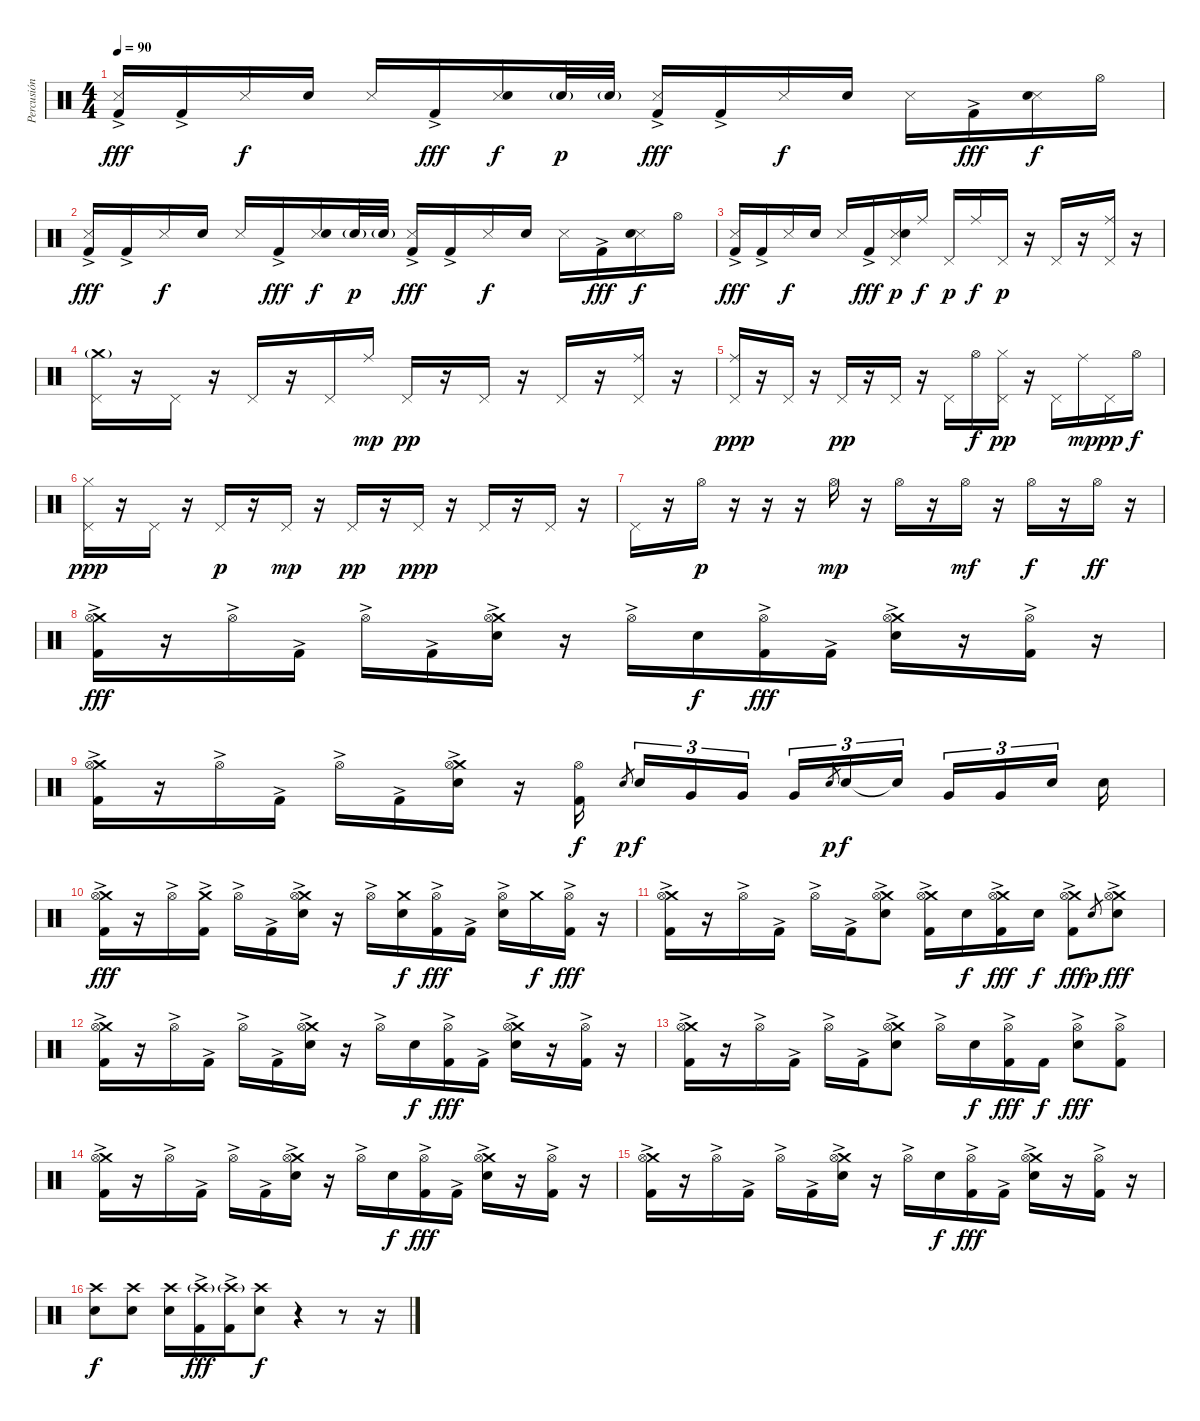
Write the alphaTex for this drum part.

\track ("Percusión" "Percusión") {instrument percussion}
\staff {score}
\articulation defaults
\ts (4 4)
\tempo 90
\clef neutral
\ks c
("Snare (side stick) 3" "Kick (hit) 2"{ac}).16{dy fff} "Kick (hit) 2"{ac}.16 "Snare (side stick) 3".16{dy f} "Electric Snare (hit)".16 "Snare (side stick) 3".16 "Kick (hit) 2"{ac}.16{dy fff} ("Snare (side stick) 3" "Electric Snare (hit)").16{dy f} "Electric Snare (hit)"{g}.32{dy p} "Electric Snare (hit)"{g}.32 ("Snare (side stick) 3" "Kick (hit) 2"{ac}).16{dy fff} "Kick (hit) 2"{ac}.16 "Snare (side stick) 3".16{dy f} "Electric Snare (hit)".16 "Snare (side stick) 3".16 "Kick (hit) 2"{ac}.16{dy fff} ("Snare (side stick) 3" "Electric Snare (hit)").16{dy f} "Hi-Hat (open)".16 |
("Snare (side stick) 3" "Kick (hit) 2"{ac}).16{dy fff} "Kick (hit) 2"{ac}.16 "Snare (side stick) 3".16{dy f} "Electric Snare (hit)".16 "Snare (side stick) 3".16 "Kick (hit) 2"{ac}.16{dy fff} ("Snare (side stick) 3" "Electric Snare (hit)").16{dy f} "Electric Snare (hit)"{g}.32{dy p} "Electric Snare (hit)"{g}.32 ("Snare (side stick) 3" "Kick (hit) 2"{ac}).16{dy fff} "Kick (hit) 2"{ac}.16 "Snare (side stick) 3".16{dy f} "Electric Snare (hit)".16 "Snare (side stick) 3".16 "Kick (hit) 2"{ac}.16{dy fff} ("Snare (side stick) 3" "Electric Snare (hit)").16{dy f} "Hi-Hat (open)".16 |
("Snare (side stick) 3" "Kick (hit) 2"{ac}).16{dy fff} "Kick (hit) 2"{ac}.16 "Snare (side stick) 3".16{dy f} "Electric Snare (hit)".16 "Snare (side stick) 3".16 "Kick (hit) 2"{ac}.16{dy fff} ("Snare (side stick) 3" "Pedal Hi-Hat (hit)" "Electric Snare (hit)").16{dy p} "Ride (middle)".16{dy f} "Pedal Hi-Hat (hit)".16{dy p} "Ride (middle)".16{dy f} "Pedal Hi-Hat (hit)".16{dy p} r.16 "Pedal Hi-Hat (hit)".16 r.16 ("Ride (middle)" "Pedal Hi-Hat (hit)").16 r.16 |
("Crash medium (hit)"{g} "Pedal Hi-Hat (hit)").16 r.16 "Pedal Hi-Hat (hit)".16 r.16 "Pedal Hi-Hat (hit)".16 r.16 "Pedal Hi-Hat (hit)".16 "Ride (middle)".16{dy mp} "Pedal Hi-Hat (hit)".16{dy pp} r.16 "Pedal Hi-Hat (hit)".16 r.16 "Pedal Hi-Hat (hit)".16 r.16 ("Ride (middle)" "Pedal Hi-Hat (hit)").16 r.16 |
("Ride (middle)" "Pedal Hi-Hat (hit)").16{dy ppp} r.16 "Pedal Hi-Hat (hit)".16 r.16 "Pedal Hi-Hat (hit)".16{dy pp} r.16 "Pedal Hi-Hat (hit)".16 r.16 "Pedal Hi-Hat (hit)".16 "Hi-Hat (open)".16{dy f} ("Hi-Hat (closed)" "Pedal Hi-Hat (hit)").16{dy pp} r.16 "Pedal Hi-Hat (hit)".16 "Ride (middle)".16{dy mp} "Pedal Hi-Hat (hit)".16{dy pp} "Hi-Hat (open)".16{dy f} |
("Hi-Hat (closed)" "Pedal Hi-Hat (hit)").16{dy ppp} r.16 "Pedal Hi-Hat (hit)".16 r.16 "Pedal Hi-Hat (hit)".16{dy p} r.16 "Pedal Hi-Hat (hit)".16{dy mp} r.16 "Pedal Hi-Hat (hit)".16{dy pp} r.16 "Pedal Hi-Hat (hit)".16{dy ppp} r.16 "Pedal Hi-Hat (hit)".16 r.16 "Pedal Hi-Hat (hit)".16 r.16 |
"Pedal Hi-Hat (hit)".16 r.16 "Hi-Hat (open)".16{dy p} r.16 r.16 r.16 "Hi-Hat (open)".16{dy mp} r.16 "Hi-Hat (open)".16 r.16 "Hi-Hat (open)".16{dy mf} r.16 "Hi-Hat (open)".16{dy f} r.16 "Hi-Hat (open)".16{dy ff} r.16 |
("Crash medium (hit)" "Hi-Hat (open)"{ac} "Kick (hit) 2"{ac}).16{dy fff} r.16 "Hi-Hat (open)"{ac}.16 "Kick (hit) 2"{ac}.16 "Hi-Hat (open)"{ac}.16 "Kick (hit) 2"{ac}.16 ("Crash medium (hit)" "Hi-Hat (open)"{ac} "Electric Snare (hit)").16 r.16 "Hi-Hat (open)"{ac}.16 "Electric Snare (hit)".16{dy f} ("Hi-Hat (open)"{ac} "Kick (hit) 2"{ac}).16{dy fff} "Kick (hit) 2"{ac}.16 ("Crash medium (hit)" "Hi-Hat (open)"{ac} "Electric Snare (hit)").16 r.16 ("Hi-Hat (open)"{ac} "Kick (hit) 2").16 r.16 |
("Crash medium (hit)" "Hi-Hat (open)"{ac} "Kick (hit) 2"{ac}).16 r.16 "Hi-Hat (open)"{ac}.16 "Kick (hit) 2"{ac}.16 "Hi-Hat (open)"{ac}.16 "Kick (hit) 2"{ac}.16 ("Crash medium (hit)" "Hi-Hat (open)"{ac} "Electric Snare (hit)").16 r.16 ("Hi-Hat (open)" "Kick (hit) 2").16{dy f} "Electric Snare (hit)".8{gr dy p} "Electric Snare (hit)".16{tu (3 2) dy f} "Very Low Tom (hit)".16{tu (3 2)} "Very Low Tom (hit)".16{tu (3 2)} "Very Low Tom (hit)".16{tu (3 2)} "Electric Snare (hit)".8{gr dy p} "Electric Snare (hit)".16{tu (3 2) dy f} "Electric Snare (hit)"{t}.16{tu (3 2)} "Very Low Tom (hit)".16{tu (3 2)} "Very Low Tom (hit)".16{tu (3 2)} "Electric Snare (hit)".16{tu (3 2)} "Electric Snare (hit)".16 |
("Crash medium (hit)" "Hi-Hat (open)" "Kick (hit) 2"{ac}).16{dy fff} r.16 "Hi-Hat (open)"{ac}.16 ("Crash medium (hit)" "Kick (hit) 2"{ac}).16 "Hi-Hat (open)"{ac}.16 "Kick (hit) 2"{ac}.16 ("Crash medium (hit)" "Hi-Hat (open)"{ac} "Electric Snare (hit)").16 r.16 "Hi-Hat (open)"{ac}.16 ("Crash medium (hit)" "Electric Snare (hit)").16{dy f} ("Hi-Hat (open)"{ac} "Kick (hit) 2"{ac}).16{dy fff} "Kick (hit) 2"{ac}.16 ("Hi-Hat (open)"{ac} "Electric Snare (hit)").16 "Crash medium (hit)".16{dy f} ("Hi-Hat (open)"{ac} "Kick (hit) 2").16{dy fff} r.16 |
("Crash medium (hit)" "Hi-Hat (open)" "Kick (hit) 2"{ac}).16 r.16 "Hi-Hat (open)"{ac}.16 "Kick (hit) 2"{ac}.16 "Hi-Hat (open)"{ac}.16 "Kick (hit) 2"{ac}.16 ("Crash medium (hit)" "Hi-Hat (open)"{ac} "Electric Snare (hit)").8 ("Crash medium (hit)" "Hi-Hat (open)"{ac} "Kick (hit) 2"{ac}).16 "Electric Snare (hit)".16{dy f} ("Crash medium (hit)" "Hi-Hat (open)"{ac} "Kick (hit) 2"{ac}).16{dy fff} "Electric Snare (hit)".16{dy f} ("Crash medium (hit)" "Hi-Hat (open)"{ac} "Kick (hit) 2"{ac}).8{dy fff} "Electric Snare (hit)".8{gr dy p} ("Crash medium (hit)" "Hi-Hat (open)"{ac} "Electric Snare (hit)").8{dy fff} |
("Crash medium (hit)" "Hi-Hat (open)" "Kick (hit) 2"{ac}).16 r.16 "Hi-Hat (open)"{ac}.16 "Kick (hit) 2"{ac}.16 "Hi-Hat (open)"{ac}.16 "Kick (hit) 2"{ac}.16 ("Crash medium (hit)" "Hi-Hat (open)"{ac} "Electric Snare (hit)").16 r.16 "Hi-Hat (open)"{ac}.16 "Electric Snare (hit)".16{dy f} ("Hi-Hat (open)"{ac} "Kick (hit) 2"{ac}).16{dy fff} "Kick (hit) 2"{ac}.16 ("Crash medium (hit)" "Hi-Hat (open)"{ac} "Electric Snare (hit)").16 r.16 ("Hi-Hat (open)"{ac} "Kick (hit) 2").16 r.16 |
("Crash medium (hit)" "Hi-Hat (open)" "Kick (hit) 2"{ac}).16 r.16 "Hi-Hat (open)"{ac}.16 "Kick (hit) 2"{ac}.16 "Hi-Hat (open)"{ac}.16 "Kick (hit) 2"{ac}.16 ("Crash medium (hit)" "Hi-Hat (open)"{ac} "Electric Snare (hit)").8 "Hi-Hat (open)"{ac}.16 "Electric Snare (hit)".16{dy f} ("Hi-Hat (open)"{ac} "Kick (hit) 2"{ac}).16{dy fff} "Kick (hit) 2".16{dy f} ("Hi-Hat (open)"{ac} "Electric Snare (hit)").8{dy fff} ("Hi-Hat (open)"{ac} "Kick (hit) 2").8 |
("Crash medium (hit)" "Hi-Hat (open)" "Kick (hit) 2"{ac}).16 r.16 "Hi-Hat (open)"{ac}.16 "Kick (hit) 2"{ac}.16 "Hi-Hat (open)"{ac}.16 "Kick (hit) 2"{ac}.16 ("Crash medium (hit)" "Hi-Hat (open)"{ac} "Electric Snare (hit)").16 r.16 "Hi-Hat (open)"{ac}.16 "Electric Snare (hit)".16{dy f} ("Hi-Hat (open)"{ac} "Kick (hit) 2"{ac}).16{dy fff} "Kick (hit) 2"{ac}.16 ("Crash medium (hit)" "Hi-Hat (open)"{ac} "Electric Snare (hit)").16 r.16 ("Hi-Hat (open)"{ac} "Kick (hit) 2").16 r.16 |
("Crash medium (hit)" "Hi-Hat (open)" "Kick (hit) 2"{ac}).16 r.16 "Hi-Hat (open)"{ac}.16 "Kick (hit) 2"{ac}.16 "Hi-Hat (open)"{ac}.16 "Kick (hit) 2"{ac}.16 ("Crash medium (hit)" "Hi-Hat (open)"{ac} "Electric Snare (hit)").16 r.16 "Hi-Hat (open)"{ac}.16 "Electric Snare (hit)".16{dy f} ("Hi-Hat (open)"{ac} "Kick (hit) 2"{ac}).16{dy fff} "Kick (hit) 2"{ac}.16 ("Crash medium (hit)" "Hi-Hat (open)"{ac} "Electric Snare (hit)").16 r.16 ("Hi-Hat (open)"{ac} "Kick (hit) 2").16 r.16 |
("Crash high (hit)" "Electric Snare (hit)").8{dy f} ("Crash high (hit)" "Electric Snare (hit)").8 ("Crash high (hit)" "Electric Snare (hit)").16 ("Crash high (hit)"{g} "Kick (hit) 2"{ac}).16{dy fff} ("Crash high (hit)"{g} "Kick (hit) 2"{ac}).16 ("Crash high (hit)" "Electric Snare (hit)").8{dy f} r.4 r.8 r.16
